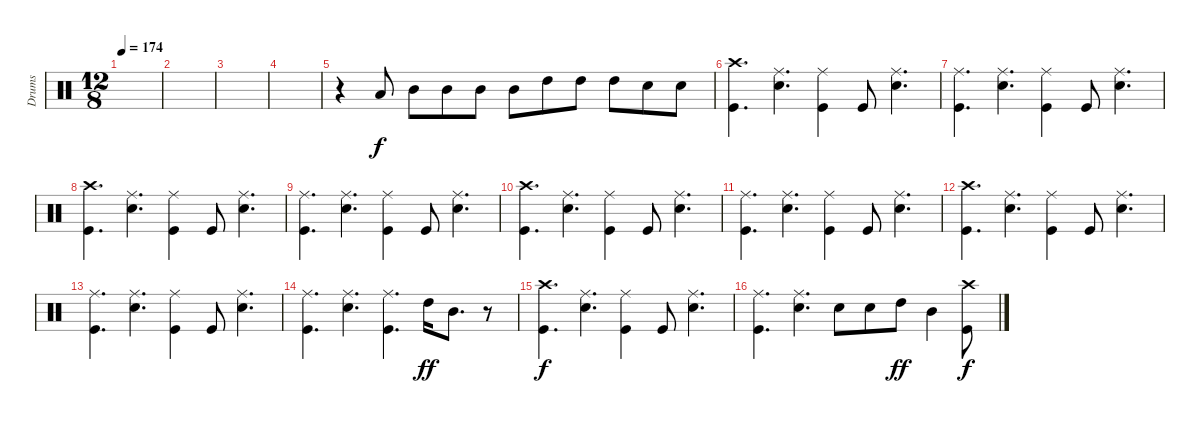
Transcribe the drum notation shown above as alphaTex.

\track ("Drums" "Drums") {instrument percussion}
\staff {score}
\articulation defaults
\ts (12 8)
\tempo 174
\clef neutral
\ks c
|
|
|
|
r.4 "Low Tom (hit)".8 "Mid Tom (hit)".8 "Mid Tom (hit)".8 "Mid Tom (hit)".8 "Mid Tom (hit)".8 "High Tom (hit)".8 "High Tom (hit)".8 "High Tom (hit)".8 "Snare (hit) 2".8{dy f} "Snare (hit) 2".8 |
("Crash high (hit)" "Kick (hit)").4{d} ("Ride (middle)" "Snare (hit) 2").4{d} ("Ride (middle)" "Kick (hit)").4 "Kick (hit)".8 ("Ride (middle)" "Snare (hit) 2").4{d} |
("Ride (middle)" "Kick (hit)").4{d} ("Ride (middle)" "Snare (hit) 2").4{d} ("Ride (middle)" "Kick (hit)").4 "Kick (hit)".8 ("Ride (middle)" "Snare (hit) 2").4{d} |
("Crash high (hit)" "Kick (hit)").4{d} ("Ride (middle)" "Snare (hit) 2").4{d} ("Ride (middle)" "Kick (hit)").4 "Kick (hit)".8 ("Ride (middle)" "Snare (hit) 2").4{d} |
("Ride (middle)" "Kick (hit)").4{d} ("Ride (middle)" "Snare (hit) 2").4{d} ("Ride (middle)" "Kick (hit)").4 "Kick (hit)".8 ("Ride (middle)" "Snare (hit) 2").4{d} |
("Crash high (hit)" "Kick (hit)").4{d} ("Ride (middle)" "Snare (hit) 2").4{d} ("Ride (middle)" "Kick (hit)").4 "Kick (hit)".8 ("Ride (middle)" "Snare (hit) 2").4{d} |
("Ride (middle)" "Kick (hit)").4{d} ("Ride (middle)" "Snare (hit) 2").4{d} ("Ride (middle)" "Kick (hit)").4 "Kick (hit)".8 ("Ride (middle)" "Snare (hit) 2").4{d} |
("Crash high (hit)" "Kick (hit)").4{d} ("Ride (middle)" "Snare (hit) 2").4{d} ("Ride (middle)" "Kick (hit)").4 "Kick (hit)".8 ("Ride (middle)" "Snare (hit) 2").4{d} |
("Ride (middle)" "Kick (hit)").4{d} ("Ride (middle)" "Snare (hit) 2").4{d} ("Ride (middle)" "Kick (hit)").4 "Kick (hit)".8 ("Ride (middle)" "Snare (hit) 2").4{d} |
("Ride (middle)" "Kick (hit)").4{d} ("Ride (middle)" "Snare (hit) 2").4{d} ("Ride (middle)" "Kick (hit)").4{d} "High Tom (hit)".16{dy ff} "Mid Tom (hit)".8{d} r.8 |
("Crash high (hit)" "Kick (hit)").4{d dy f} ("Ride (middle)" "Snare (hit) 2").4{d} ("Ride (middle)" "Kick (hit)").4 "Kick (hit)".8 ("Ride (middle)" "Snare (hit) 2").4{d} |
("Ride (middle)" "Kick (hit)").4{d} ("Ride (middle)" "Snare (hit) 2").4{d} "Snare (hit) 2".8 "Snare (hit) 2".8 "High Tom (hit)".8{dy ff} "Mid Tom (hit)".4 ("Crash high (hit)" "Kick (hit)").8{dy f}
